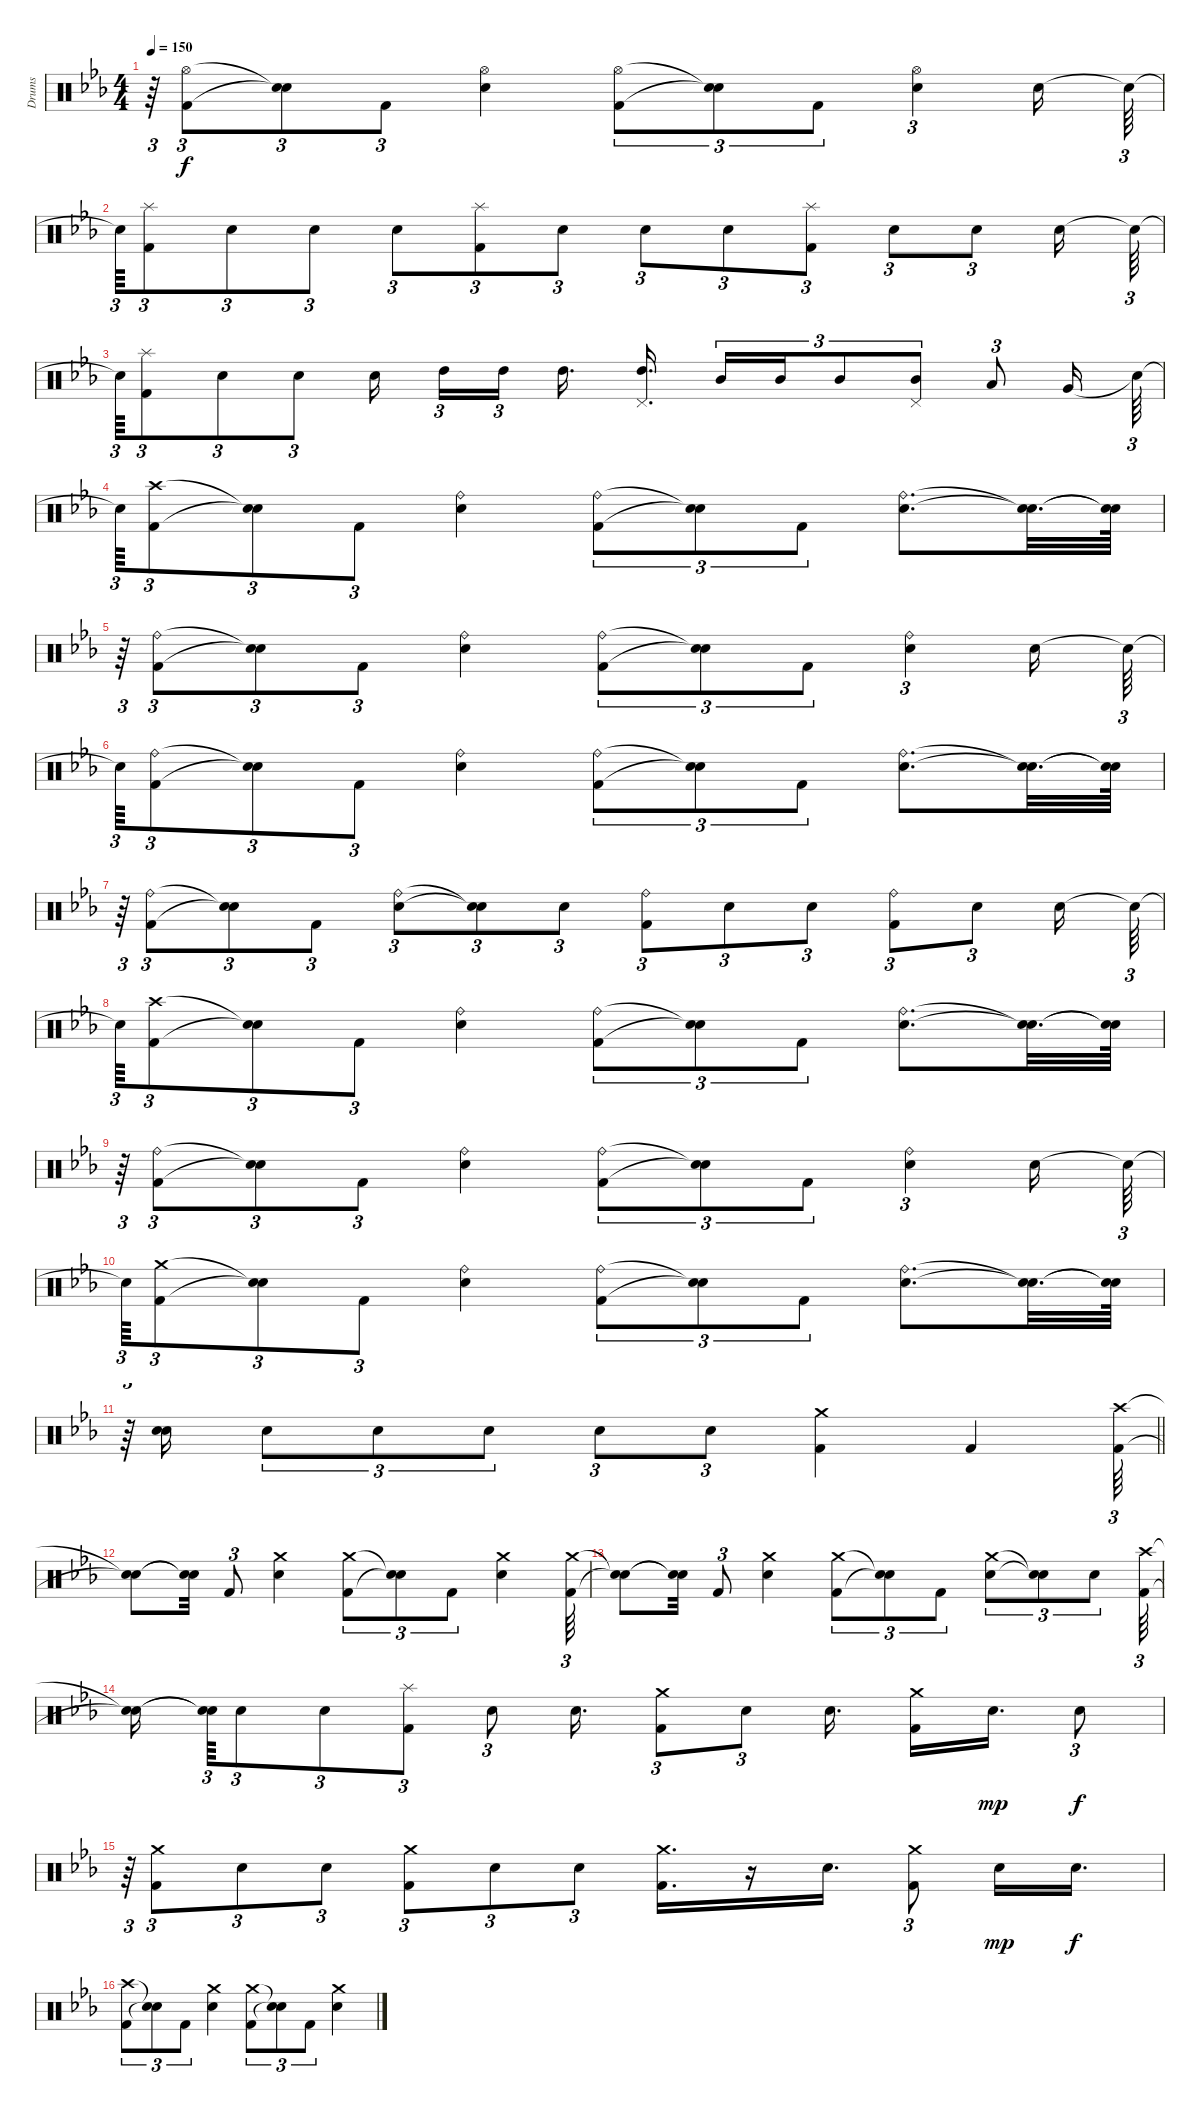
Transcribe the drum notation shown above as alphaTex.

\track ("Drums" "Drums") {instrument percussion}
\staff {score}
\articulation defaults
\ts (4 4)
\tempo 150
\clef neutral
\ks cminor
r.64{tu (3 2) dy f} ("Kick (hit) 2" "Hi-Hat (open)").8{tu (3 2)} ("Snare (hit)"{t} "Snare (hit)"{t}).8{tu (3 2)} "Kick (hit) 2".8{tu (3 2)} ("Electric Snare (hit)" "Hi-Hat (open)").4 ("Kick (hit) 2" "Hi-Hat (open)").8{tu (3 2)} ("Snare (hit)"{t} "Snare (hit)"{t}).8{tu (3 2)} "Kick (hit) 2".8{tu (3 2)} ("Hi-Hat (open)" "Electric Snare (hit)").4{tu (3 2)} "Electric Snare (hit)".16 "Snare (hit)"{t}.64{tu (3 2)} |
"Snare (hit)"{t}.64{tu (3 2)} ("Kick (hit) 2" "Splash (hit)").8{tu (3 2)} "Electric Snare (hit)".8{tu (3 2)} "Electric Snare (hit)".8{tu (3 2)} "Electric Snare (hit)".8{tu (3 2)} ("Splash (hit)" "Kick (hit) 2").8{tu (3 2)} "Electric Snare (hit)".8{tu (3 2)} "Electric Snare (hit)".8{tu (3 2)} "Electric Snare (hit)".8{tu (3 2)} ("Splash (hit)" "Kick (hit) 2").8{tu (3 2)} "Electric Snare (hit)".8{tu (3 2)} "Electric Snare (hit)".8{tu (3 2)} "Electric Snare (hit)".16 "Snare (hit)"{t}.64{tu (3 2)} |
"Snare (hit)"{t}.64{tu (3 2)} ("Kick (hit) 2" "Splash (hit)").8{tu (3 2)} "Electric Snare (hit)".8{tu (3 2)} "Electric Snare (hit)".8{tu (3 2)} "Electric Snare (hit)".16{beam splitsecondary} "High Tom (hit)".16{tu (3 2)} "High Tom (hit)".16{tu (3 2) beam splitsecondary} "High Tom (hit)".16{d} ("Pedal Hi-Hat (hit)" "High Tom (hit)").16{d beam splitsecondary} "Mid Tom (hit)".16{tu (3 2)} "Mid Tom (hit)".16{tu (3 2)} "Mid Tom (hit)".8{tu (3 2)} ("Mid Tom (hit)" "Pedal Hi-Hat (hit)").8{tu (3 2)} "Low Tom (hit)".8{tu (3 2)} "Very Low Tom (hit)".16 "Snare (hit)"{t}.64{tu (3 2)} |
"Snare (hit)"{t}.64{tu (3 2)} ("Kick (hit) 2" "Crash high (hit)").8{tu (3 2)} ("Snare (hit)"{t} "Snare (hit)"{t}).8{tu (3 2)} "Kick (hit) 2".8{tu (3 2)} ("Electric Snare (hit)" "Ride (bell)").4 ("Kick (hit) 2" "Ride (bell)").8{tu (3 2)} ("Snare (hit)"{t} "Snare (hit)"{t}).8{tu (3 2)} "Kick (hit) 2".8{tu (3 2)} ("Ride (bell)" "Electric Snare (hit)").8{d} ("Snare (hit)"{t} "Snare (hit)"{t}).32{d} ("Snare (hit)"{t} "Snare (hit)"{t}).64 |
r.64{tu (3 2)} ("Ride (bell)" "Kick (hit) 2").8{tu (3 2)} ("Snare (hit)"{t} "Snare (hit)"{t}).8{tu (3 2)} "Kick (hit) 2".8{tu (3 2)} ("Electric Snare (hit)" "Ride (bell)").4 ("Kick (hit) 2" "Ride (bell)").8{tu (3 2)} ("Snare (hit)"{t} "Snare (hit)"{t}).8{tu (3 2)} "Kick (hit) 2".8{tu (3 2)} ("Ride (bell)" "Electric Snare (hit)").4{tu (3 2)} "Electric Snare (hit)".16 "Snare (hit)"{t}.64{tu (3 2)} |
"Snare (hit)"{t}.64{tu (3 2)} ("Ride (bell)" "Kick (hit) 2").8{tu (3 2)} ("Snare (hit)"{t} "Snare (hit)"{t}).8{tu (3 2)} "Kick (hit) 2".8{tu (3 2)} ("Electric Snare (hit)" "Ride (bell)").4 ("Kick (hit) 2" "Ride (bell)").8{tu (3 2)} ("Snare (hit)"{t} "Snare (hit)"{t}).8{tu (3 2)} "Kick (hit) 2".8{tu (3 2)} ("Ride (bell)" "Electric Snare (hit)").8{d} ("Snare (hit)"{t} "Snare (hit)"{t}).32{d} ("Snare (hit)"{t} "Snare (hit)"{t}).64 |
r.64{tu (3 2)} ("Ride (bell)" "Kick (hit) 2").8{tu (3 2)} ("Snare (hit)"{t} "Snare (hit)"{t}).8{tu (3 2)} "Kick (hit) 2".8{tu (3 2)} ("Ride (bell)" "Electric Snare (hit)").8{tu (3 2)} ("Snare (hit)"{t} "Snare (hit)"{t}).8{tu (3 2)} "Electric Snare (hit)".8{tu (3 2)} ("Ride (bell)" "Kick (hit) 2").8{tu (3 2)} "Electric Snare (hit)".8{tu (3 2)} "Electric Snare (hit)".8{tu (3 2)} ("Ride (bell)" "Kick (hit) 2").8{tu (3 2)} "Electric Snare (hit)".8{tu (3 2)} "Electric Snare (hit)".16 "Snare (hit)"{t}.64{tu (3 2)} |
"Snare (hit)"{t}.64{tu (3 2)} ("Crash high (hit)" "Kick (hit) 2").8{tu (3 2)} ("Snare (hit)"{t} "Snare (hit)"{t}).8{tu (3 2)} "Kick (hit) 2".8{tu (3 2)} ("Electric Snare (hit)" "Ride (bell)").4 ("Kick (hit) 2" "Ride (bell)").8{tu (3 2)} ("Snare (hit)"{t} "Snare (hit)"{t}).8{tu (3 2)} "Kick (hit) 2".8{tu (3 2)} ("Ride (bell)" "Electric Snare (hit)").8{d} ("Snare (hit)"{t} "Snare (hit)"{t}).32{d} ("Snare (hit)"{t} "Snare (hit)"{t}).64 |
r.64{tu (3 2)} ("Ride (bell)" "Kick (hit) 2").8{tu (3 2)} ("Snare (hit)"{t} "Snare (hit)"{t}).8{tu (3 2)} "Kick (hit) 2".8{tu (3 2)} ("Electric Snare (hit)" "Ride (bell)").4 ("Kick (hit) 2" "Ride (bell)").8{tu (3 2)} ("Snare (hit)"{t} "Snare (hit)"{t}).8{tu (3 2)} "Kick (hit) 2".8{tu (3 2)} ("Ride (bell)" "Electric Snare (hit)").4{tu (3 2)} "Electric Snare (hit)".16 "Snare (hit)"{t}.64{tu (3 2)} |
"Snare (hit)"{t}.64{tu (3 2)} ("Kick (hit) 2" "Crash medium (hit)").8{tu (3 2)} ("Snare (hit)"{t} "Snare (hit)"{t}).8{tu (3 2)} "Kick (hit) 2".8{tu (3 2)} ("Electric Snare (hit)" "Ride (bell)").4 ("Kick (hit) 2" "Ride (bell)").8{tu (3 2)} ("Snare (hit)"{t} "Snare (hit)"{t}).8{tu (3 2)} "Kick (hit) 2".8{tu (3 2)} ("Ride (bell)" "Electric Snare (hit)").8{d} ("Snare (hit)"{t} "Snare (hit)"{t}).32{d} ("Snare (hit)"{t} "Snare (hit)"{t}).64 |
\barLineRight lightlight
r.64{tu (3 2)} ("Electric Snare (hit)" "Electric Snare (hit)").16 "Electric Snare (hit)".8{tu (3 2)} "Electric Snare (hit)".8{tu (3 2)} "Electric Snare (hit)".8{tu (3 2)} "Electric Snare (hit)".8{tu (3 2)} "Electric Snare (hit)".8{tu (3 2)} ("Kick (hit) 2" "Crash medium (hit)").4 "Kick (hit) 2".4 ("Kick (hit) 2" "Crash high (hit)").64{tu (3 2)} |
("Snare (hit)"{t} "Snare (hit)"{t}).8 ("Snare (hit)"{t} "Snare (hit)"{t}).32 "Kick (hit) 2".8{tu (3 2)} ("Electric Snare (hit)" "Crash medium (hit)").4 ("Kick (hit) 2" "Crash medium (hit)").8{tu (3 2)} ("Snare (hit)"{t} "Snare (hit)"{t}).8{tu (3 2)} "Kick (hit) 2".8{tu (3 2)} ("Electric Snare (hit)" "Crash medium (hit)").4 ("Kick (hit) 2" "Crash medium (hit)").64{tu (3 2)} |
("Snare (hit)"{t} "Snare (hit)"{t}).8 ("Snare (hit)"{t} "Snare (hit)"{t}).32 "Kick (hit) 2".8{tu (3 2)} ("Electric Snare (hit)" "Crash medium (hit)").4 ("Kick (hit) 2" "Crash medium (hit)").8{tu (3 2)} ("Snare (hit)"{t} "Snare (hit)"{t}).8{tu (3 2)} "Kick (hit) 2".8{tu (3 2)} ("Crash medium (hit)" "Electric Snare (hit)").8{tu (3 2)} ("Snare (hit)"{t} "Snare (hit)"{t}).8{tu (3 2)} "Electric Snare (hit)".8{tu (3 2)} ("Kick (hit) 2" "Crash high (hit)").64{tu (3 2)} |
("Snare (hit)"{t} "Snare (hit)"{t}).16{beam splitsecondary} ("Snare (hit)"{t} "Snare (hit)"{t}).64{tu (3 2)} "Electric Snare (hit)".8{tu (3 2)} "Electric Snare (hit)".8{tu (3 2)} ("Kick (hit) 2" "Splash (hit)").8{tu (3 2)} "Electric Snare (hit)".8{tu (3 2)} "Electric Snare (hit)".16{d} ("Kick (hit) 2" "Crash medium (hit)").8{tu (3 2)} "Electric Snare (hit)".8{tu (3 2)} "Electric Snare (hit)".16{d} ("Kick (hit) 2" "Crash medium (hit)").16 "Electric Snare (hit)".16{d dy mp} "Electric Snare (hit)".8{tu (3 2) dy f} |
r.64{tu (3 2)} ("Kick (hit) 2" "Crash medium (hit)").8{tu (3 2)} "Electric Snare (hit)".8{tu (3 2)} "Electric Snare (hit)".8{tu (3 2)} ("Kick (hit) 2" "Crash medium (hit)").8{tu (3 2)} "Electric Snare (hit)".8{tu (3 2)} "Electric Snare (hit)".8{tu (3 2)} ("Kick (hit) 2" "Crash medium (hit)").16{d} r.16 "Electric Snare (hit)".16{d} ("Crash medium (hit)" "Kick (hit) 2").8{tu (3 2)} "Electric Snare (hit)".16{dy mp} "Electric Snare (hit)".16{d dy f} |
("Crash high (hit)" "Kick (hit) 2").8{tu (3 2)} ("Snare (hit)"{t} "Snare (hit)"{t}).8{tu (3 2)} "Kick (hit) 2".8{tu (3 2)} ("Electric Snare (hit)" "Crash medium (hit)").4 ("Kick (hit) 2" "Crash medium (hit)").8{tu (3 2)} ("Snare (hit)"{t} "Snare (hit)"{t}).8{tu (3 2)} "Kick (hit) 2".8{tu (3 2)} ("Electric Snare (hit)" "Crash medium (hit)").4
